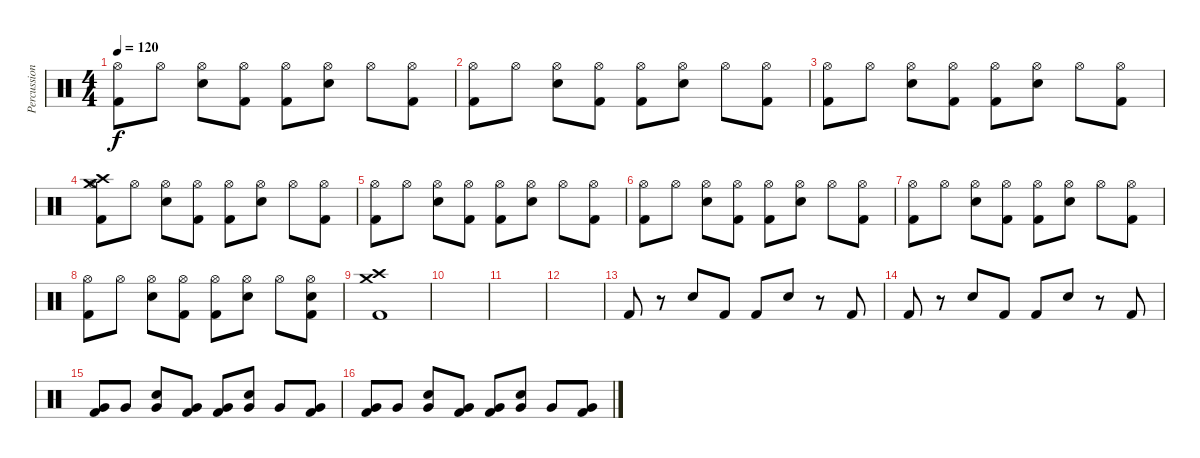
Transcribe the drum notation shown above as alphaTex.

\track ("Percussion" "Percussion") {instrument percussion}
\staff {score}
\articulation defaults
\ts (4 4)
\tempo 120
\clef neutral
\ks c
("Hi-Hat (open)" "Kick (hit) 2").8{dy f} "Hi-Hat (open)".8 ("Hi-Hat (open)" "Snare (hit) 2").8 ("Hi-Hat (open)" "Kick (hit) 2").8 ("Hi-Hat (open)" "Kick (hit) 2").8 ("Hi-Hat (open)" "Snare (hit) 2").8 "Hi-Hat (open)".8 ("Hi-Hat (open)" "Kick (hit) 2").8 |
("Hi-Hat (open)" "Kick (hit) 2").8 "Hi-Hat (open)".8 ("Hi-Hat (open)" "Snare (hit) 2").8 ("Hi-Hat (open)" "Kick (hit) 2").8 ("Hi-Hat (open)" "Kick (hit) 2").8 ("Hi-Hat (open)" "Snare (hit) 2").8 "Hi-Hat (open)".8 ("Hi-Hat (open)" "Kick (hit) 2").8 |
("Hi-Hat (open)" "Kick (hit) 2").8 "Hi-Hat (open)".8 ("Hi-Hat (open)" "Snare (hit) 2").8 ("Hi-Hat (open)" "Kick (hit) 2").8 ("Hi-Hat (open)" "Kick (hit) 2").8 ("Hi-Hat (open)" "Snare (hit) 2").8 "Hi-Hat (open)".8 ("Hi-Hat (open)" "Kick (hit) 2").8 |
("Crash medium (hit)" "Crash high (hit)" "Hi-Hat (open)" "Kick (hit) 2").8 "Hi-Hat (open)".8 ("Hi-Hat (open)" "Snare (hit) 2").8 ("Hi-Hat (open)" "Kick (hit) 2").8 ("Hi-Hat (open)" "Kick (hit) 2").8 ("Hi-Hat (open)" "Snare (hit) 2").8 "Hi-Hat (open)".8 ("Hi-Hat (open)" "Kick (hit) 2").8 |
("Hi-Hat (open)" "Kick (hit) 2").8 "Hi-Hat (open)".8 ("Hi-Hat (open)" "Snare (hit) 2").8 ("Hi-Hat (open)" "Kick (hit) 2").8 ("Hi-Hat (open)" "Kick (hit) 2").8 ("Hi-Hat (open)" "Snare (hit) 2").8 "Hi-Hat (open)".8 ("Hi-Hat (open)" "Kick (hit) 2").8 |
("Hi-Hat (open)" "Kick (hit) 2").8 "Hi-Hat (open)".8 ("Hi-Hat (open)" "Snare (hit) 2").8 ("Hi-Hat (open)" "Kick (hit) 2").8 ("Hi-Hat (open)" "Kick (hit) 2").8 ("Hi-Hat (open)" "Snare (hit) 2").8 "Hi-Hat (open)".8 ("Hi-Hat (open)" "Kick (hit) 2").8 |
("Hi-Hat (open)" "Kick (hit) 2").8 "Hi-Hat (open)".8 ("Hi-Hat (open)" "Snare (hit) 2").8 ("Hi-Hat (open)" "Kick (hit) 2").8 ("Hi-Hat (open)" "Kick (hit) 2").8 ("Hi-Hat (open)" "Snare (hit) 2").8 "Hi-Hat (open)".8 ("Hi-Hat (open)" "Kick (hit) 2").8 |
("Hi-Hat (open)" "Kick (hit) 2").8 "Hi-Hat (open)".8 ("Hi-Hat (open)" "Snare (hit) 2").8 ("Hi-Hat (open)" "Kick (hit) 2").8 ("Hi-Hat (open)" "Kick (hit) 2").8 ("Hi-Hat (open)" "Snare (hit) 2").8 "Hi-Hat (open)".8 ("Hi-Hat (open)" "Snare (hit) 2" "Kick (hit) 2").8 |
("Crash medium (hit)" "Crash high (hit)" "Kick (hit) 2").1 |
|
|
|
"Kick (hit) 2".8 r.8 "Snare (hit) 2".8 "Kick (hit) 2".8 "Kick (hit) 2".8 "Snare (hit) 2".8 r.8 "Kick (hit) 2".8 |
"Kick (hit) 2".8 r.8 "Snare (hit) 2".8 "Kick (hit) 2".8 "Kick (hit) 2".8 "Snare (hit) 2".8 r.8 "Kick (hit) 2".8 |
("Very Low Tom (hit)" "Kick (hit) 2").8 "Very Low Tom (hit)".8 ("Very Low Tom (hit)" "Snare (hit) 2").8 ("Very Low Tom (hit)" "Kick (hit) 2").8 ("Very Low Tom (hit)" "Kick (hit) 2").8 ("Very Low Tom (hit)" "Snare (hit) 2").8 "Very Low Tom (hit)".8 ("Very Low Tom (hit)" "Kick (hit) 2").8 |
("Very Low Tom (hit)" "Kick (hit) 2").8 "Very Low Tom (hit)".8 ("Very Low Tom (hit)" "Snare (hit) 2").8 ("Very Low Tom (hit)" "Kick (hit) 2").8 ("Very Low Tom (hit)" "Kick (hit) 2").8 ("Very Low Tom (hit)" "Snare (hit) 2").8 "Very Low Tom (hit)".8 ("Very Low Tom (hit)" "Kick (hit) 2").8
